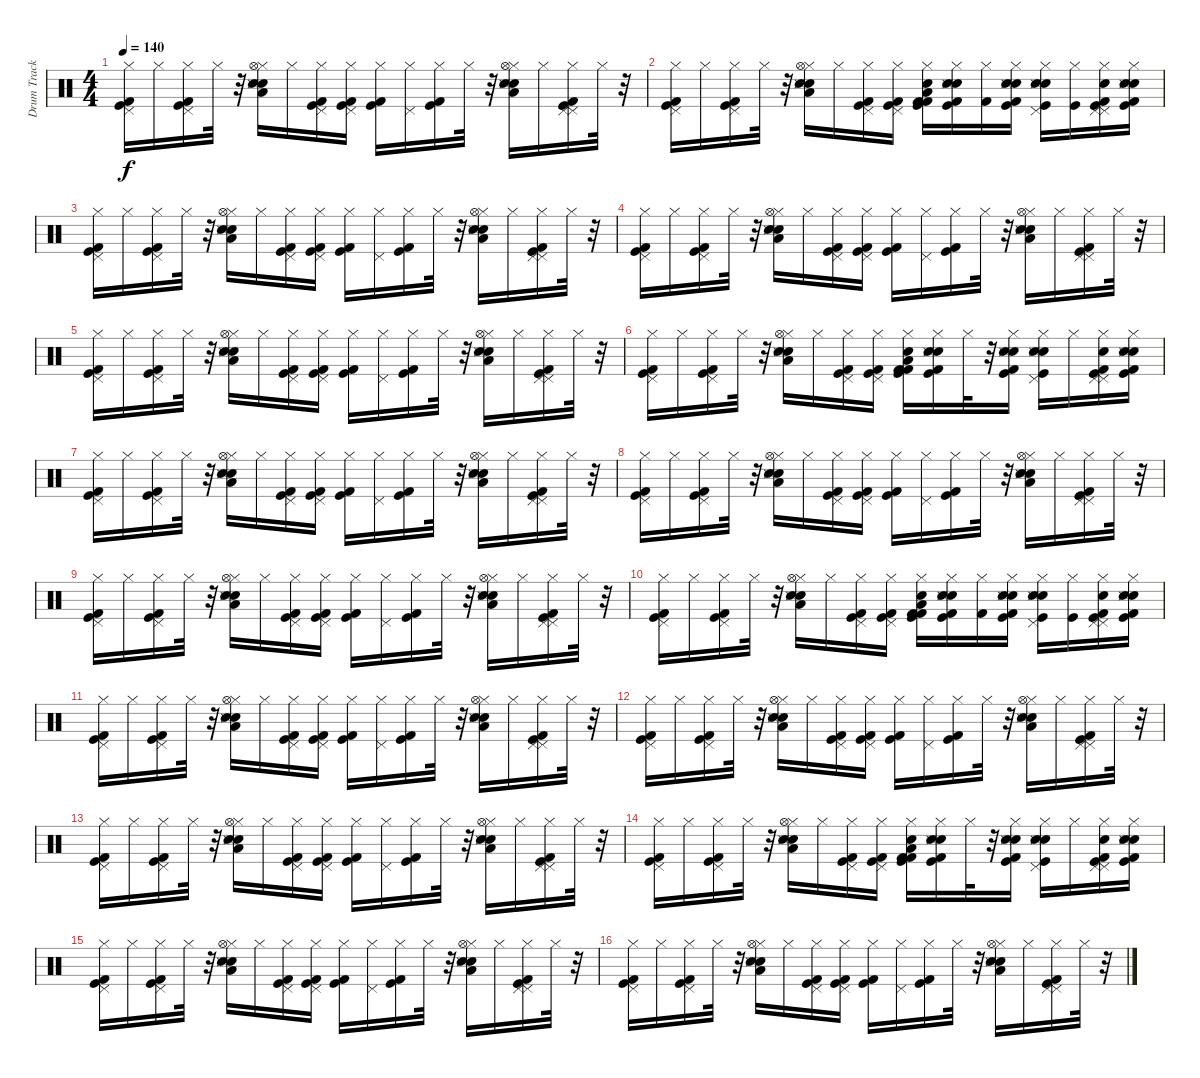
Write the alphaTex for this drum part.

\track ("Drum Track" "Drum Track") {instrument percussion}
\staff {score}
\articulation defaults
\ts (4 4)
\tempo 140
\clef neutral
\ks c
("Hi-Hat (closed)" "Pedal Hi-Hat (hit)" "Kick (hit)" "Kick (hit) 2").16{dy f} "Hi-Hat (closed)".16 ("Kick (hit) 2" "Kick (hit)" "Pedal Hi-Hat (hit)" "Hi-Hat (closed)").16 "Hi-Hat (closed)".32 r.32 ("Hi-Hat (closed)" "Hi-Hat (open)" "Low Floor Tom (hit)" "Electric Snare (hit)" "Hand Clap (hit)" "Snare (side stick) 3").16 "Hi-Hat (closed)".16 ("Kick (hit) 2" "Kick (hit)" "Pedal Hi-Hat (hit)" "Hi-Hat (closed)").16 ("Kick (hit) 2" "Kick (hit)" "Pedal Hi-Hat (hit)" "Hi-Hat (closed)").16 ("Kick (hit) 2" "Kick (hit)" "Hi-Hat (closed)").16 ("Pedal Hi-Hat (hit)" "Hi-Hat (closed)").16 ("Kick (hit) 2" "Kick (hit)" "Hi-Hat (closed)").16 "Hi-Hat (closed)".32 r.32 ("Hi-Hat (closed)" "Hi-Hat (open)" "Low Floor Tom (hit)" "Electric Snare (hit)" "Hand Clap (hit)" "Snare (side stick) 3").16 "Hi-Hat (closed)".16 ("Kick (hit) 2" "Kick (hit)" "Pedal Hi-Hat (hit)" "Pedal Hi-Hat (hit)" "Hi-Hat (closed)").16 "Hi-Hat (closed)".32 r.32 |
("Hi-Hat (closed)" "Pedal Hi-Hat (hit)" "Kick (hit)" "Kick (hit) 2").16 "Hi-Hat (closed)".16 ("Kick (hit) 2" "Kick (hit)" "Pedal Hi-Hat (hit)" "Hi-Hat (closed)").16 "Hi-Hat (closed)".32 r.32 ("Hi-Hat (closed)" "Hi-Hat (open)" "Low Floor Tom (hit)" "Electric Snare (hit)" "Hand Clap (hit)" "Snare (side stick) 3").16 "Hi-Hat (closed)".16 ("Kick (hit) 2" "Kick (hit)" "Pedal Hi-Hat (hit)" "Hi-Hat (closed)").16 ("Kick (hit) 2" "Kick (hit)" "Pedal Hi-Hat (hit)" "Hi-Hat (closed)").16 ("Kick (hit) 2" "Kick (hit)" "Hi-Hat (closed)" "Low Floor Tom (hit)" "Snare (hit) 2" "Kick (hit) 2").16 ("Hi-Hat (closed)" "Electric Snare (hit)" "Hand Clap (hit)" "Snare (side stick) 3" "Kick (hit)" "Kick (hit) 2").16 ("Hi-Hat (closed)" "Kick (hit) 2").16 ("Hi-Hat (closed)" "Kick (hit) 2" "Kick (hit)" "Electric Snare (hit)" "Hand Clap (hit)" "Snare (side stick) 3").16 ("Hi-Hat (closed)" "Pedal Hi-Hat (hit)" "Electric Snare (hit)" "Hand Clap (hit)" "Snare (side stick) 3" "Kick (hit)").16 ("Hi-Hat (closed)" "Kick (hit)").16 ("Kick (hit) 2" "Kick (hit)" "Pedal Hi-Hat (hit)" "Pedal Hi-Hat (hit)" "Hi-Hat (closed)" "Electric Snare (hit)").16 ("Hi-Hat (closed)" "Electric Snare (hit)" "Hand Clap (hit)" "Snare (side stick) 3" "Kick (hit)" "Kick (hit) 2").16 |
("Kick (hit) 2" "Kick (hit)" "Pedal Hi-Hat (hit)" "Hi-Hat (closed)").16 "Hi-Hat (closed)".16 ("Kick (hit) 2" "Kick (hit)" "Pedal Hi-Hat (hit)" "Hi-Hat (closed)").16 "Hi-Hat (closed)".32 r.32 ("Hi-Hat (closed)" "Hi-Hat (open)" "Low Floor Tom (hit)" "Electric Snare (hit)" "Hand Clap (hit)" "Snare (side stick) 3").16 "Hi-Hat (closed)".16 ("Kick (hit) 2" "Kick (hit)" "Pedal Hi-Hat (hit)" "Hi-Hat (closed)").16 ("Kick (hit) 2" "Kick (hit)" "Pedal Hi-Hat (hit)" "Hi-Hat (closed)").16 ("Kick (hit) 2" "Kick (hit)" "Hi-Hat (closed)").16 ("Pedal Hi-Hat (hit)" "Hi-Hat (closed)").16 ("Kick (hit) 2" "Kick (hit)" "Hi-Hat (closed)").16 "Hi-Hat (closed)".32 r.32 ("Hi-Hat (closed)" "Hi-Hat (open)" "Low Floor Tom (hit)" "Electric Snare (hit)" "Hand Clap (hit)" "Snare (side stick) 3").16 "Hi-Hat (closed)".16 ("Kick (hit) 2" "Kick (hit)" "Pedal Hi-Hat (hit)" "Pedal Hi-Hat (hit)" "Hi-Hat (closed)").16 "Hi-Hat (closed)".32 r.32 |
("Hi-Hat (closed)" "Pedal Hi-Hat (hit)" "Kick (hit)" "Kick (hit) 2").16 "Hi-Hat (closed)".16 ("Kick (hit) 2" "Kick (hit)" "Pedal Hi-Hat (hit)" "Hi-Hat (closed)").16 "Hi-Hat (closed)".32 r.32 ("Hi-Hat (closed)" "Hi-Hat (open)" "Low Floor Tom (hit)" "Electric Snare (hit)" "Hand Clap (hit)" "Snare (side stick) 3").16 "Hi-Hat (closed)".16 ("Kick (hit) 2" "Kick (hit)" "Pedal Hi-Hat (hit)" "Hi-Hat (closed)").16 ("Kick (hit) 2" "Kick (hit)" "Pedal Hi-Hat (hit)" "Hi-Hat (closed)").16 ("Kick (hit) 2" "Kick (hit)" "Hi-Hat (closed)").16 ("Pedal Hi-Hat (hit)" "Hi-Hat (closed)").16 ("Kick (hit) 2" "Kick (hit)" "Hi-Hat (closed)").16 "Hi-Hat (closed)".32 r.32 ("Hi-Hat (closed)" "Hi-Hat (open)" "Low Floor Tom (hit)" "Electric Snare (hit)" "Hand Clap (hit)" "Snare (side stick) 3").16 "Hi-Hat (closed)".16 ("Kick (hit) 2" "Kick (hit)" "Pedal Hi-Hat (hit)" "Pedal Hi-Hat (hit)" "Hi-Hat (closed)").16 "Hi-Hat (closed)".32 r.32 |
("Hi-Hat (closed)" "Pedal Hi-Hat (hit)" "Kick (hit)" "Kick (hit) 2").16 "Hi-Hat (closed)".16 ("Kick (hit) 2" "Kick (hit)" "Pedal Hi-Hat (hit)" "Hi-Hat (closed)").16 "Hi-Hat (closed)".32 r.32 ("Hi-Hat (closed)" "Hi-Hat (open)" "Low Floor Tom (hit)" "Electric Snare (hit)" "Hand Clap (hit)" "Snare (side stick) 3").16 "Hi-Hat (closed)".16 ("Kick (hit) 2" "Kick (hit)" "Pedal Hi-Hat (hit)" "Hi-Hat (closed)").16 ("Kick (hit) 2" "Kick (hit)" "Pedal Hi-Hat (hit)" "Hi-Hat (closed)").16 ("Kick (hit) 2" "Kick (hit)" "Hi-Hat (closed)").16 ("Pedal Hi-Hat (hit)" "Hi-Hat (closed)").16 ("Kick (hit) 2" "Kick (hit)" "Hi-Hat (closed)").16 "Hi-Hat (closed)".32 r.32 ("Hi-Hat (closed)" "Hi-Hat (open)" "Low Floor Tom (hit)" "Electric Snare (hit)" "Hand Clap (hit)" "Snare (side stick) 3").16 "Hi-Hat (closed)".16 ("Kick (hit) 2" "Kick (hit)" "Pedal Hi-Hat (hit)" "Pedal Hi-Hat (hit)" "Hi-Hat (closed)").16 "Hi-Hat (closed)".32 r.32 |
("Hi-Hat (closed)" "Pedal Hi-Hat (hit)" "Kick (hit)" "Kick (hit) 2").16 "Hi-Hat (closed)".16 ("Kick (hit) 2" "Kick (hit)" "Pedal Hi-Hat (hit)" "Hi-Hat (closed)").16 "Hi-Hat (closed)".32 r.32 ("Hi-Hat (closed)" "Hi-Hat (open)" "Low Floor Tom (hit)" "Electric Snare (hit)" "Hand Clap (hit)" "Snare (side stick) 3").16 "Hi-Hat (closed)".16 ("Kick (hit) 2" "Kick (hit)" "Pedal Hi-Hat (hit)" "Hi-Hat (closed)").16 ("Kick (hit) 2" "Kick (hit)" "Pedal Hi-Hat (hit)" "Hi-Hat (closed)").16 ("Kick (hit) 2" "Kick (hit)" "Hi-Hat (closed)" "Low Floor Tom (hit)" "Snare (hit) 2" "Kick (hit) 2").16 ("Hi-Hat (closed)" "Electric Snare (hit)" "Hand Clap (hit)" "Snare (side stick) 3" "Kick (hit)" "Kick (hit) 2").16 "Hi-Hat (closed)".32 r.32 ("Hi-Hat (closed)" "Kick (hit) 2" "Kick (hit)" "Electric Snare (hit)" "Hand Clap (hit)" "Snare (side stick) 3").16 ("Hi-Hat (closed)" "Pedal Hi-Hat (hit)" "Electric Snare (hit)" "Hand Clap (hit)" "Snare (side stick) 3" "Kick (hit)").16 "Hi-Hat (closed)".16 ("Kick (hit) 2" "Kick (hit)" "Pedal Hi-Hat (hit)" "Pedal Hi-Hat (hit)" "Hi-Hat (closed)" "Electric Snare (hit)").16 ("Hi-Hat (closed)" "Electric Snare (hit)" "Hand Clap (hit)" "Snare (side stick) 3" "Kick (hit)" "Kick (hit) 2").16 |
("Hi-Hat (closed)" "Pedal Hi-Hat (hit)" "Kick (hit)" "Kick (hit) 2").16 "Hi-Hat (closed)".16 ("Kick (hit) 2" "Kick (hit)" "Pedal Hi-Hat (hit)" "Hi-Hat (closed)").16 "Hi-Hat (closed)".32 r.32 ("Hi-Hat (closed)" "Hi-Hat (open)" "Low Floor Tom (hit)" "Electric Snare (hit)" "Hand Clap (hit)" "Snare (side stick) 3").16 "Hi-Hat (closed)".16 ("Kick (hit) 2" "Kick (hit)" "Pedal Hi-Hat (hit)" "Hi-Hat (closed)").16 ("Kick (hit) 2" "Kick (hit)" "Pedal Hi-Hat (hit)" "Hi-Hat (closed)").16 ("Kick (hit) 2" "Kick (hit)" "Hi-Hat (closed)").16 ("Pedal Hi-Hat (hit)" "Hi-Hat (closed)").16 ("Kick (hit) 2" "Kick (hit)" "Hi-Hat (closed)").16 "Hi-Hat (closed)".32 r.32 ("Hi-Hat (closed)" "Hi-Hat (open)" "Low Floor Tom (hit)" "Electric Snare (hit)" "Hand Clap (hit)" "Snare (side stick) 3").16 "Hi-Hat (closed)".16 ("Kick (hit) 2" "Kick (hit)" "Pedal Hi-Hat (hit)" "Pedal Hi-Hat (hit)" "Hi-Hat (closed)").16 "Hi-Hat (closed)".32 r.32 |
("Hi-Hat (closed)" "Pedal Hi-Hat (hit)" "Kick (hit)" "Kick (hit) 2").16 "Hi-Hat (closed)".16 ("Kick (hit) 2" "Kick (hit)" "Pedal Hi-Hat (hit)" "Hi-Hat (closed)").16 "Hi-Hat (closed)".32 r.32 ("Hi-Hat (closed)" "Hi-Hat (open)" "Low Floor Tom (hit)" "Electric Snare (hit)" "Hand Clap (hit)" "Snare (side stick) 3").16 "Hi-Hat (closed)".16 ("Kick (hit) 2" "Kick (hit)" "Pedal Hi-Hat (hit)" "Hi-Hat (closed)").16 ("Kick (hit) 2" "Kick (hit)" "Pedal Hi-Hat (hit)" "Hi-Hat (closed)").16 ("Kick (hit) 2" "Kick (hit)" "Hi-Hat (closed)").16 ("Pedal Hi-Hat (hit)" "Hi-Hat (closed)").16 ("Kick (hit) 2" "Kick (hit)" "Hi-Hat (closed)").16 "Hi-Hat (closed)".32 r.32 ("Hi-Hat (closed)" "Hi-Hat (open)" "Low Floor Tom (hit)" "Electric Snare (hit)" "Hand Clap (hit)" "Snare (side stick) 3").16 "Hi-Hat (closed)".16 ("Kick (hit) 2" "Kick (hit)" "Pedal Hi-Hat (hit)" "Pedal Hi-Hat (hit)" "Hi-Hat (closed)").16 "Hi-Hat (closed)".32 r.32 |
("Hi-Hat (closed)" "Pedal Hi-Hat (hit)" "Kick (hit)" "Kick (hit) 2").16 "Hi-Hat (closed)".16 ("Kick (hit) 2" "Kick (hit)" "Pedal Hi-Hat (hit)" "Hi-Hat (closed)").16 "Hi-Hat (closed)".32 r.32 ("Hi-Hat (closed)" "Hi-Hat (open)" "Low Floor Tom (hit)" "Electric Snare (hit)" "Hand Clap (hit)" "Snare (side stick) 3").16 "Hi-Hat (closed)".16 ("Kick (hit) 2" "Kick (hit)" "Pedal Hi-Hat (hit)" "Hi-Hat (closed)").16 ("Kick (hit) 2" "Kick (hit)" "Pedal Hi-Hat (hit)" "Hi-Hat (closed)").16 ("Kick (hit) 2" "Kick (hit)" "Hi-Hat (closed)").16 ("Pedal Hi-Hat (hit)" "Hi-Hat (closed)").16 ("Kick (hit) 2" "Kick (hit)" "Hi-Hat (closed)").16 "Hi-Hat (closed)".32 r.32 ("Hi-Hat (closed)" "Hi-Hat (open)" "Low Floor Tom (hit)" "Electric Snare (hit)" "Hand Clap (hit)" "Snare (side stick) 3").16 "Hi-Hat (closed)".16 ("Kick (hit) 2" "Kick (hit)" "Pedal Hi-Hat (hit)" "Pedal Hi-Hat (hit)" "Hi-Hat (closed)").16 "Hi-Hat (closed)".32 r.32 |
("Hi-Hat (closed)" "Pedal Hi-Hat (hit)" "Kick (hit)" "Kick (hit) 2").16 "Hi-Hat (closed)".16 ("Kick (hit) 2" "Kick (hit)" "Pedal Hi-Hat (hit)" "Hi-Hat (closed)").16 "Hi-Hat (closed)".32 r.32 ("Hi-Hat (closed)" "Hi-Hat (open)" "Low Floor Tom (hit)" "Electric Snare (hit)" "Hand Clap (hit)" "Snare (side stick) 3").16 "Hi-Hat (closed)".16 ("Kick (hit) 2" "Kick (hit)" "Pedal Hi-Hat (hit)" "Hi-Hat (closed)").16 ("Kick (hit) 2" "Kick (hit)" "Pedal Hi-Hat (hit)" "Hi-Hat (closed)").16 ("Kick (hit) 2" "Kick (hit)" "Hi-Hat (closed)" "Low Floor Tom (hit)" "Snare (hit) 2" "Kick (hit) 2").16 ("Hi-Hat (closed)" "Electric Snare (hit)" "Hand Clap (hit)" "Snare (side stick) 3" "Kick (hit)" "Kick (hit) 2").16 ("Hi-Hat (closed)" "Kick (hit) 2").16 ("Hi-Hat (closed)" "Kick (hit) 2" "Kick (hit)" "Electric Snare (hit)" "Hand Clap (hit)" "Snare (side stick) 3").16 ("Hi-Hat (closed)" "Pedal Hi-Hat (hit)" "Electric Snare (hit)" "Hand Clap (hit)" "Snare (side stick) 3" "Kick (hit)").16 ("Hi-Hat (closed)" "Kick (hit)").16 ("Kick (hit) 2" "Kick (hit)" "Pedal Hi-Hat (hit)" "Pedal Hi-Hat (hit)" "Hi-Hat (closed)" "Electric Snare (hit)").16 ("Hi-Hat (closed)" "Electric Snare (hit)" "Hand Clap (hit)" "Snare (side stick) 3" "Kick (hit)" "Kick (hit) 2").16 |
("Kick (hit) 2" "Kick (hit)" "Pedal Hi-Hat (hit)" "Hi-Hat (closed)").16 "Hi-Hat (closed)".16 ("Kick (hit) 2" "Kick (hit)" "Pedal Hi-Hat (hit)" "Hi-Hat (closed)").16 "Hi-Hat (closed)".32 r.32 ("Hi-Hat (closed)" "Hi-Hat (open)" "Low Floor Tom (hit)" "Electric Snare (hit)" "Hand Clap (hit)" "Snare (side stick) 3").16 "Hi-Hat (closed)".16 ("Kick (hit) 2" "Kick (hit)" "Pedal Hi-Hat (hit)" "Hi-Hat (closed)").16 ("Kick (hit) 2" "Kick (hit)" "Pedal Hi-Hat (hit)" "Hi-Hat (closed)").16 ("Kick (hit) 2" "Kick (hit)" "Hi-Hat (closed)").16 ("Pedal Hi-Hat (hit)" "Hi-Hat (closed)").16 ("Kick (hit) 2" "Kick (hit)" "Hi-Hat (closed)").16 "Hi-Hat (closed)".32 r.32 ("Hi-Hat (closed)" "Hi-Hat (open)" "Low Floor Tom (hit)" "Electric Snare (hit)" "Hand Clap (hit)" "Snare (side stick) 3").16 "Hi-Hat (closed)".16 ("Kick (hit) 2" "Kick (hit)" "Pedal Hi-Hat (hit)" "Pedal Hi-Hat (hit)" "Hi-Hat (closed)").16 "Hi-Hat (closed)".32 r.32 |
("Hi-Hat (closed)" "Pedal Hi-Hat (hit)" "Kick (hit)" "Kick (hit) 2").16 "Hi-Hat (closed)".16 ("Kick (hit) 2" "Kick (hit)" "Pedal Hi-Hat (hit)" "Hi-Hat (closed)").16 "Hi-Hat (closed)".32 r.32 ("Hi-Hat (closed)" "Hi-Hat (open)" "Low Floor Tom (hit)" "Electric Snare (hit)" "Hand Clap (hit)" "Snare (side stick) 3").16 "Hi-Hat (closed)".16 ("Kick (hit) 2" "Kick (hit)" "Pedal Hi-Hat (hit)" "Hi-Hat (closed)").16 ("Kick (hit) 2" "Kick (hit)" "Pedal Hi-Hat (hit)" "Hi-Hat (closed)").16 ("Kick (hit) 2" "Kick (hit)" "Hi-Hat (closed)").16 ("Pedal Hi-Hat (hit)" "Hi-Hat (closed)").16 ("Kick (hit) 2" "Kick (hit)" "Hi-Hat (closed)").16 "Hi-Hat (closed)".32 r.32 ("Hi-Hat (closed)" "Hi-Hat (open)" "Low Floor Tom (hit)" "Electric Snare (hit)" "Hand Clap (hit)" "Snare (side stick) 3").16 "Hi-Hat (closed)".16 ("Kick (hit) 2" "Kick (hit)" "Pedal Hi-Hat (hit)" "Pedal Hi-Hat (hit)" "Hi-Hat (closed)").16 "Hi-Hat (closed)".32 r.32 |
("Hi-Hat (closed)" "Pedal Hi-Hat (hit)" "Kick (hit)" "Kick (hit) 2").16 "Hi-Hat (closed)".16 ("Kick (hit) 2" "Kick (hit)" "Pedal Hi-Hat (hit)" "Hi-Hat (closed)").16 "Hi-Hat (closed)".32 r.32 ("Hi-Hat (closed)" "Hi-Hat (open)" "Low Floor Tom (hit)" "Electric Snare (hit)" "Hand Clap (hit)" "Snare (side stick) 3").16 "Hi-Hat (closed)".16 ("Kick (hit) 2" "Kick (hit)" "Pedal Hi-Hat (hit)" "Hi-Hat (closed)").16 ("Kick (hit) 2" "Kick (hit)" "Pedal Hi-Hat (hit)" "Hi-Hat (closed)").16 ("Kick (hit) 2" "Kick (hit)" "Hi-Hat (closed)").16 ("Pedal Hi-Hat (hit)" "Hi-Hat (closed)").16 ("Kick (hit) 2" "Kick (hit)" "Hi-Hat (closed)").16 "Hi-Hat (closed)".32 r.32 ("Hi-Hat (closed)" "Hi-Hat (open)" "Low Floor Tom (hit)" "Electric Snare (hit)" "Hand Clap (hit)" "Snare (side stick) 3").16 "Hi-Hat (closed)".16 ("Kick (hit) 2" "Kick (hit)" "Pedal Hi-Hat (hit)" "Pedal Hi-Hat (hit)" "Hi-Hat (closed)").16 "Hi-Hat (closed)".32 r.32 |
("Hi-Hat (closed)" "Pedal Hi-Hat (hit)" "Kick (hit)" "Kick (hit) 2").16 "Hi-Hat (closed)".16 ("Kick (hit) 2" "Kick (hit)" "Pedal Hi-Hat (hit)" "Hi-Hat (closed)").16 "Hi-Hat (closed)".32 r.32 ("Hi-Hat (closed)" "Hi-Hat (open)" "Low Floor Tom (hit)" "Electric Snare (hit)" "Hand Clap (hit)" "Snare (side stick) 3").16 "Hi-Hat (closed)".16 ("Kick (hit) 2" "Kick (hit)" "Pedal Hi-Hat (hit)" "Hi-Hat (closed)").16 ("Kick (hit) 2" "Kick (hit)" "Pedal Hi-Hat (hit)" "Hi-Hat (closed)").16 ("Kick (hit) 2" "Kick (hit)" "Hi-Hat (closed)" "Low Floor Tom (hit)" "Snare (hit) 2" "Kick (hit) 2").16 ("Hi-Hat (closed)" "Electric Snare (hit)" "Hand Clap (hit)" "Snare (side stick) 3" "Kick (hit)" "Kick (hit) 2").16 "Hi-Hat (closed)".32 r.32 ("Hi-Hat (closed)" "Kick (hit) 2" "Kick (hit)" "Electric Snare (hit)" "Hand Clap (hit)" "Snare (side stick) 3").16 ("Hi-Hat (closed)" "Pedal Hi-Hat (hit)" "Electric Snare (hit)" "Hand Clap (hit)" "Snare (side stick) 3" "Kick (hit)").16 "Hi-Hat (closed)".16 ("Kick (hit) 2" "Kick (hit)" "Pedal Hi-Hat (hit)" "Pedal Hi-Hat (hit)" "Hi-Hat (closed)" "Electric Snare (hit)").16 ("Hi-Hat (closed)" "Electric Snare (hit)" "Hand Clap (hit)" "Snare (side stick) 3" "Kick (hit)" "Kick (hit) 2").16 |
("Hi-Hat (closed)" "Pedal Hi-Hat (hit)" "Kick (hit)" "Kick (hit) 2").16 "Hi-Hat (closed)".16 ("Kick (hit) 2" "Kick (hit)" "Pedal Hi-Hat (hit)" "Hi-Hat (closed)").16 "Hi-Hat (closed)".32 r.32 ("Hi-Hat (closed)" "Hi-Hat (open)" "Low Floor Tom (hit)" "Electric Snare (hit)" "Hand Clap (hit)" "Snare (side stick) 3").16 "Hi-Hat (closed)".16 ("Kick (hit) 2" "Kick (hit)" "Pedal Hi-Hat (hit)" "Hi-Hat (closed)").16 ("Kick (hit) 2" "Kick (hit)" "Pedal Hi-Hat (hit)" "Hi-Hat (closed)").16 ("Kick (hit) 2" "Kick (hit)" "Hi-Hat (closed)").16 ("Pedal Hi-Hat (hit)" "Hi-Hat (closed)").16 ("Kick (hit) 2" "Kick (hit)" "Hi-Hat (closed)").16 "Hi-Hat (closed)".32 r.32 ("Hi-Hat (closed)" "Hi-Hat (open)" "Low Floor Tom (hit)" "Electric Snare (hit)" "Hand Clap (hit)" "Snare (side stick) 3").16 "Hi-Hat (closed)".16 ("Kick (hit) 2" "Kick (hit)" "Pedal Hi-Hat (hit)" "Pedal Hi-Hat (hit)" "Hi-Hat (closed)").16 "Hi-Hat (closed)".32 r.32 |
("Hi-Hat (closed)" "Pedal Hi-Hat (hit)" "Kick (hit)" "Kick (hit) 2").16 "Hi-Hat (closed)".16 ("Kick (hit) 2" "Kick (hit)" "Pedal Hi-Hat (hit)" "Hi-Hat (closed)").16 "Hi-Hat (closed)".32 r.32 ("Hi-Hat (closed)" "Hi-Hat (open)" "Low Floor Tom (hit)" "Electric Snare (hit)" "Hand Clap (hit)" "Snare (side stick) 3").16 "Hi-Hat (closed)".16 ("Kick (hit) 2" "Kick (hit)" "Pedal Hi-Hat (hit)" "Hi-Hat (closed)").16 ("Kick (hit) 2" "Kick (hit)" "Pedal Hi-Hat (hit)" "Hi-Hat (closed)").16 ("Kick (hit) 2" "Kick (hit)" "Hi-Hat (closed)").16 ("Pedal Hi-Hat (hit)" "Hi-Hat (closed)").16 ("Kick (hit) 2" "Kick (hit)" "Hi-Hat (closed)").16 "Hi-Hat (closed)".32 r.32 ("Hi-Hat (closed)" "Hi-Hat (open)" "Low Floor Tom (hit)" "Electric Snare (hit)" "Hand Clap (hit)" "Snare (side stick) 3").16 "Hi-Hat (closed)".16 ("Kick (hit) 2" "Kick (hit)" "Pedal Hi-Hat (hit)" "Pedal Hi-Hat (hit)" "Hi-Hat (closed)").16 "Hi-Hat (closed)".32 r.32
